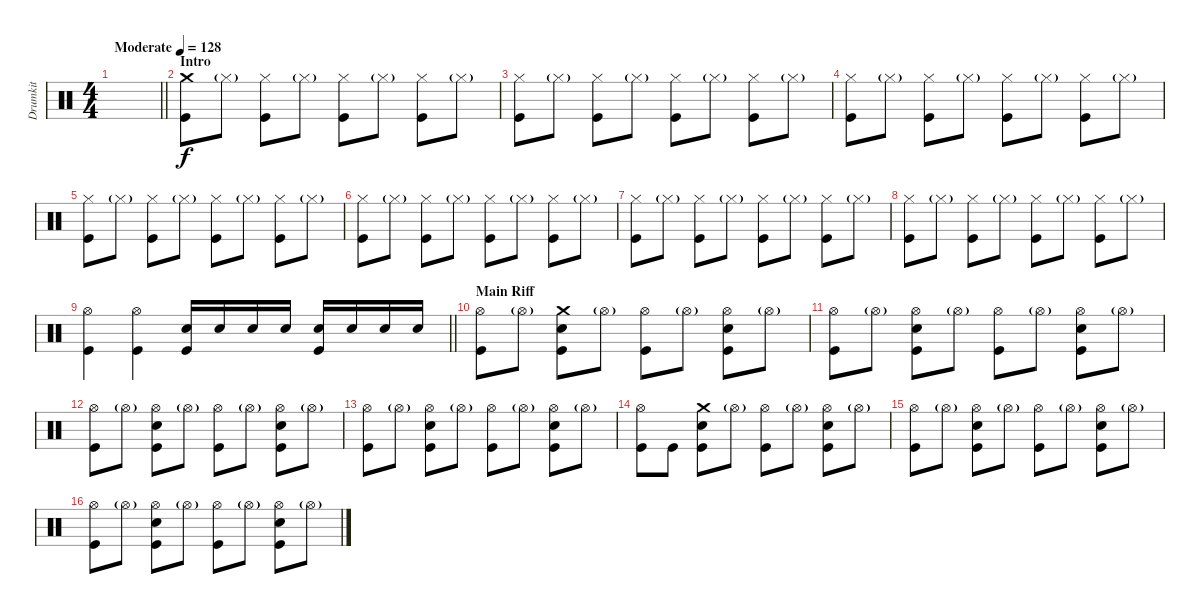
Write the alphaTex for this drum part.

\track ("Drumkit" "Drumkit") {instrument percussion}
\staff
\articulation defaults
\ts (4 4)
\tempo (128 "Moderate")
\clef neutral
\barLineRight lightlight
\ks c
|
\section ("" "Intro")
("Crash medium (hit)" "Kick (hit)").8{volume 12} "Hi-Hat (closed)"{g}.8 ("Hi-Hat (closed)" "Kick (hit)").8 "Hi-Hat (closed)"{g}.8 ("Hi-Hat (closed)" "Kick (hit)").8 "Hi-Hat (closed)"{g}.8 ("Hi-Hat (closed)" "Kick (hit)").8 "Hi-Hat (closed)"{g}.8 |
("Hi-Hat (closed)" "Kick (hit)").8 "Hi-Hat (closed)"{g}.8 ("Hi-Hat (closed)" "Kick (hit)").8 "Hi-Hat (closed)"{g}.8 ("Hi-Hat (closed)" "Kick (hit)").8 "Hi-Hat (closed)"{g}.8 ("Hi-Hat (closed)" "Kick (hit)").8 "Hi-Hat (closed)"{g}.8 |
("Hi-Hat (closed)" "Kick (hit)").8 "Hi-Hat (closed)"{g}.8 ("Hi-Hat (closed)" "Kick (hit)").8 "Hi-Hat (closed)"{g}.8 ("Hi-Hat (closed)" "Kick (hit)").8 "Hi-Hat (closed)"{g}.8 ("Hi-Hat (closed)" "Kick (hit)").8 "Hi-Hat (closed)"{g}.8 |
("Hi-Hat (closed)" "Kick (hit)").8 "Hi-Hat (closed)"{g}.8 ("Hi-Hat (closed)" "Kick (hit)").8 "Hi-Hat (closed)"{g}.8 ("Hi-Hat (closed)" "Kick (hit)").8 "Hi-Hat (closed)"{g}.8 ("Hi-Hat (closed)" "Kick (hit)").8 "Hi-Hat (closed)"{g}.8 |
("Hi-Hat (closed)" "Kick (hit)").8 "Hi-Hat (closed)"{g}.8 ("Hi-Hat (closed)" "Kick (hit)").8 "Hi-Hat (closed)"{g}.8 ("Hi-Hat (closed)" "Kick (hit)").8 "Hi-Hat (closed)"{g}.8 ("Hi-Hat (closed)" "Kick (hit)").8 "Hi-Hat (closed)"{g}.8 |
("Hi-Hat (closed)" "Kick (hit)").8 "Hi-Hat (closed)"{g}.8 ("Hi-Hat (closed)" "Kick (hit)").8 "Hi-Hat (closed)"{g}.8 ("Hi-Hat (closed)" "Kick (hit)").8 "Hi-Hat (closed)"{g}.8 ("Hi-Hat (closed)" "Kick (hit)").8 "Hi-Hat (closed)"{g}.8 |
("Hi-Hat (closed)" "Kick (hit)").8 "Hi-Hat (closed)"{g}.8 ("Hi-Hat (closed)" "Kick (hit)").8 "Hi-Hat (closed)"{g}.8 ("Hi-Hat (closed)" "Kick (hit)").8 "Hi-Hat (closed)"{g}.8 ("Hi-Hat (closed)" "Kick (hit)").8 "Hi-Hat (closed)"{g}.8 |
\barLineRight lightlight
("Hi-Hat (open)" "Kick (hit)").4 ("Hi-Hat (open)" "Kick (hit)").4 ("Snare (hit) 2" "Kick (hit)").16 "Snare (hit) 2".16 "Snare (hit) 2".16 "Snare (hit) 2".16 ("Snare (hit) 2" "Kick (hit)").16 "Snare (hit) 2".16 "Snare (hit) 2".16 "Snare (hit) 2".16 |
\section ("" "Main Riff")
("Hi-Hat (open)" "Kick (hit)").8 "Hi-Hat (open)"{g}.8 ("Crash medium (hit)" "Kick (hit)" "Snare (hit) 2").8 "Hi-Hat (open)"{g}.8 ("Hi-Hat (open)" "Kick (hit)").8 "Hi-Hat (open)"{g}.8 ("Hi-Hat (open)" "Kick (hit)" "Snare (hit) 2").8 "Hi-Hat (open)"{g}.8 |
("Hi-Hat (open)" "Kick (hit)").8 "Hi-Hat (open)"{g}.8 ("Hi-Hat (open)" "Kick (hit)" "Snare (hit) 2").8 "Hi-Hat (open)"{g}.8 ("Hi-Hat (open)" "Kick (hit)").8 "Hi-Hat (open)"{g}.8 ("Hi-Hat (open)" "Kick (hit)" "Snare (hit) 2").8 "Hi-Hat (open)"{g}.8 |
("Hi-Hat (open)" "Kick (hit)").8 "Hi-Hat (open)"{g}.8 ("Hi-Hat (open)" "Kick (hit)" "Snare (hit) 2").8 "Hi-Hat (open)"{g}.8 ("Hi-Hat (open)" "Kick (hit)").8 "Hi-Hat (open)"{g}.8 ("Hi-Hat (open)" "Kick (hit)" "Snare (hit) 2").8 "Hi-Hat (open)"{g}.8 |
("Hi-Hat (open)" "Kick (hit)").8 "Hi-Hat (open)"{g}.8 ("Hi-Hat (open)" "Kick (hit)" "Snare (hit) 2").8 "Hi-Hat (open)"{g}.8 ("Hi-Hat (open)" "Kick (hit)").8 "Hi-Hat (open)"{g}.8 ("Hi-Hat (open)" "Kick (hit)" "Snare (hit) 2").8 "Hi-Hat (open)"{g}.8 |
("Hi-Hat (open)" "Kick (hit)").8 "Kick (hit)".8 ("Crash medium (hit)" "Kick (hit)" "Snare (hit) 2").8 "Hi-Hat (open)"{g}.8 ("Hi-Hat (open)" "Kick (hit)").8 "Hi-Hat (open)"{g}.8 ("Hi-Hat (open)" "Kick (hit)" "Snare (hit) 2").8 "Hi-Hat (open)"{g}.8 |
("Hi-Hat (open)" "Kick (hit)").8 "Hi-Hat (open)"{g}.8 ("Hi-Hat (open)" "Kick (hit)" "Snare (hit) 2").8 "Hi-Hat (open)"{g}.8 ("Hi-Hat (open)" "Kick (hit)").8 "Hi-Hat (open)"{g}.8 ("Hi-Hat (open)" "Kick (hit)" "Snare (hit) 2").8 "Hi-Hat (open)"{g}.8 |
("Hi-Hat (open)" "Kick (hit)").8 "Hi-Hat (open)"{g}.8 ("Hi-Hat (open)" "Kick (hit)" "Snare (hit) 2").8 "Hi-Hat (open)"{g}.8 ("Hi-Hat (open)" "Kick (hit)").8 "Hi-Hat (open)"{g}.8 ("Hi-Hat (open)" "Kick (hit)" "Snare (hit) 2").8 "Hi-Hat (open)"{g}.8
